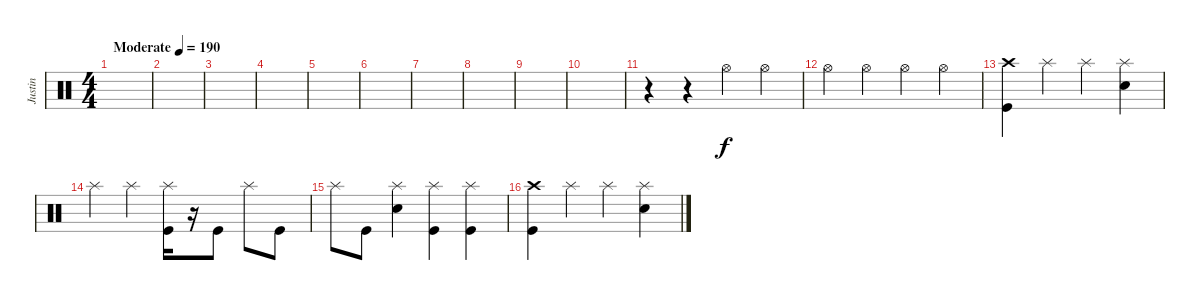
\track ("Justin" "Justin") {instrument percussion}
\staff {score}
\articulation defaults
\ts (4 4)
\tempo (190 "Moderate")
\clef neutral
\ks c
|
|
|
|
|
|
|
|
|
|
r.4 r.4 "Hi-Hat (open)".4 "Hi-Hat (open)".4 |
"Hi-Hat (open)".4 "Hi-Hat (open)".4 "Hi-Hat (open)".4 "Hi-Hat (open)".4 |
("Crash high (hit)" "Kick (hit)").4 "Splash (hit)".4 "Splash (hit)".4 ("Splash (hit)" "Electric Snare (hit)").4 |
"Splash (hit)".4 "Splash (hit)".4 ("Splash (hit)" "Kick (hit)").16 r.16 "Kick (hit)".8 "Splash (hit)".8 "Kick (hit)".8 |
"Splash (hit)".8 "Kick (hit)".8 ("Splash (hit)" "Electric Snare (hit)").4 ("Splash (hit)" "Kick (hit)").4 ("Splash (hit)" "Kick (hit)").4 |
("Crash high (hit)" "Kick (hit)").4 "Splash (hit)".4 "Splash (hit)".4 ("Splash (hit)" "Electric Snare (hit)").4
